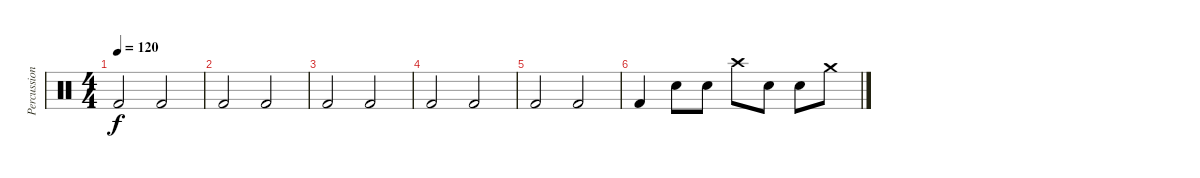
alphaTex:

\track ("Percussion" "Percussion") {instrument percussion}
\staff {score}
\articulation defaults
\ts (4 4)
\tempo 120
\clef neutral
\ks c "Kick (hit) 2".2{dy f} "Kick (hit) 2".2
|
"Kick (hit) 2".2 "Kick (hit) 2".2 |
"Kick (hit) 2".2 "Kick (hit) 2".2 |
"Kick (hit) 2".2 "Kick (hit) 2".2 |
"Kick (hit) 2".2 "Kick (hit) 2".2 |
"Kick (hit) 2".4 "Electric Snare (hit)".8 "Electric Snare (hit)".8 "Crash high (hit)".8 "Electric Snare (hit)".8 "Electric Snare (hit)".8 "Crash medium (hit)".8
